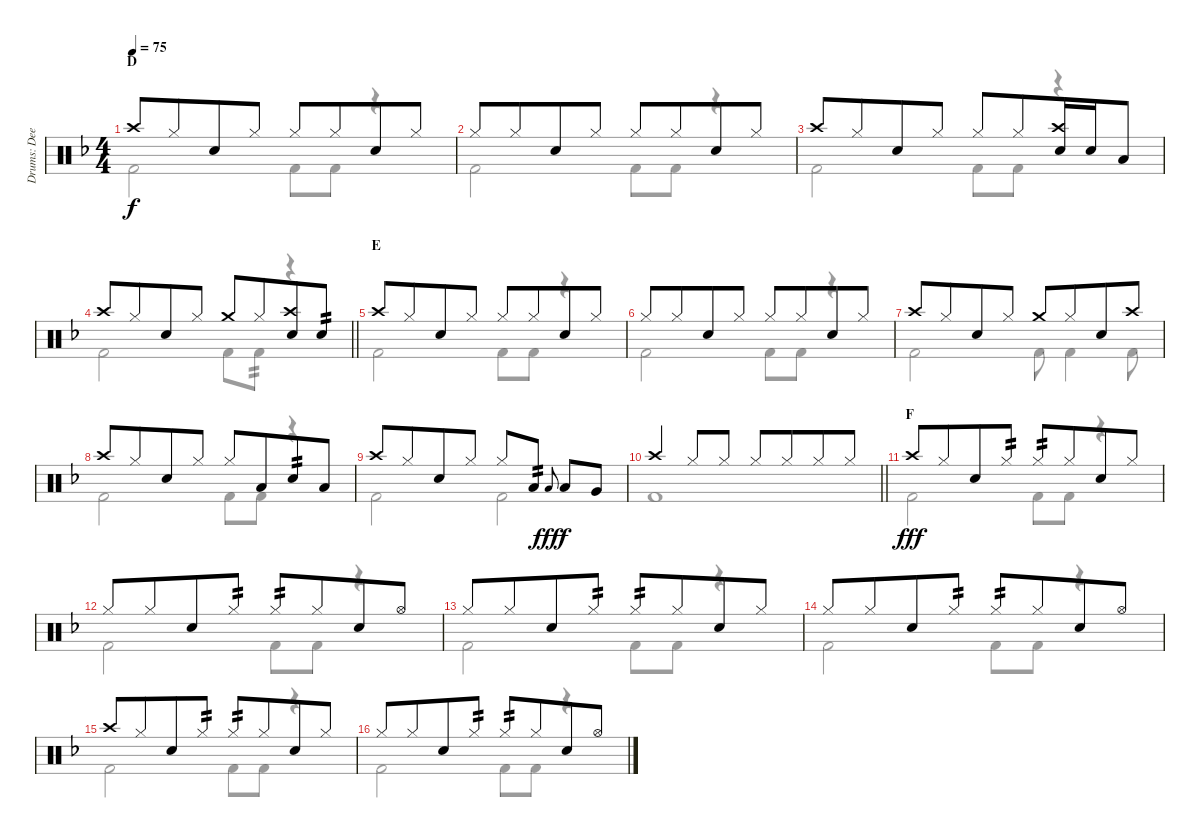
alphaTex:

\track ("Drums: Deen" "Drums: Dee") {instrument percussion}
\staff {score}
\articulation defaults
\voice
\ts (4 4)
\section ("" "D")
\tempo 75
\clef neutral
\ks f "Crash high (hit)".8{dy f} "Hi-Hat (closed)".8{beam merge} "Snare (hit) 2".8 "Hi-Hat (closed)".8 "Hi-Hat (closed)".8 "Hi-Hat (closed)".8{beam merge} "Snare (hit) 2".8 "Hi-Hat (closed)".8
|
"Hi-Hat (closed)".8 "Hi-Hat (closed)".8{beam merge} "Snare (hit) 2".8 "Hi-Hat (closed)".8 "Hi-Hat (closed)".8 "Hi-Hat (closed)".8{beam merge} "Snare (hit) 2".8 "Hi-Hat (closed)".8 |
"Crash high (hit)".8 "Hi-Hat (closed)".8{beam merge} "Snare (hit) 2".8 "Hi-Hat (closed)".8 "Hi-Hat (closed)".8 "Hi-Hat (closed)".8{beam merge} ("Crash high (hit)" "Snare (hit) 2").16 "Snare (hit) 2".16 "Low Tom (hit)".8 |
\barLineRight lightlight "Crash high (hit)".8 "Hi-Hat (closed)".8{beam merge} "Snare (hit) 2".8 "Hi-Hat (closed)".8 "Crash medium (hit)".8 "Hi-Hat (closed)".8{beam merge}
("Crash high (hit)" "Snare (hit) 2").8 "Snare (hit) 2".8{tp 2} |
\section ("" "E")
"Crash high (hit)".8 "Hi-Hat (closed)".8{beam merge} "Snare (hit) 2".8 "Hi-Hat (closed)".8 "Hi-Hat (closed)".8 "Hi-Hat (closed)".8{beam merge} "Snare (hit) 2".8 "Hi-Hat (closed)".8 |
"Hi-Hat (closed)".8 "Hi-Hat (closed)".8{beam merge} "Snare (hit) 2".8 "Hi-Hat (closed)".8 "Hi-Hat (closed)".8 "Hi-Hat (closed)".8{beam merge} "Snare (hit) 2".8 "Hi-Hat (closed)".8 |
"Crash high (hit)".8 "Hi-Hat (closed)".8{beam merge} "Snare (hit) 2".8 "Hi-Hat (closed)".8 "Crash medium (hit)".8 "Hi-Hat (closed)".8{beam merge} "Snare (hit) 2".8 "Crash high (hit)".8 |
"Crash high (hit)".8 "Hi-Hat (closed)".8{beam merge} "Snare (hit) 2".8 "Hi-Hat (closed)".8 "Hi-Hat (closed)".8 "Low Tom (hit)".8{beam merge} "Snare (hit) 2".8{tp 2} "Low Tom (hit)".8 |
"Crash high (hit)".8 "Hi-Hat (closed)".8{beam merge} "Snare (hit) 2".8 "Hi-Hat (closed)".8 "Hi-Hat (closed)".8 "Low Tom (hit)".8{tp 2} "Low Tom (hit)".8{gr onbeat dy fff beam merge} "Low Tom (hit)".8{dy f} "Very Low Tom (hit)".8 |
\barLineRight lightlight "Crash high (hit)".4 "Hi-Hat (closed)".8 "Hi-Hat (closed)".8 "Hi-Hat (closed)".8 "Hi-Hat (closed)".8{beam merge} "Hi-Hat (closed)".8 "Hi-Hat (closed)".8
|
\section ("" "F")
"Crash high (hit)".8{dy fff} "Hi-Hat (closed)".8{beam merge} "Snare (hit) 2".8 "Hi-Hat (closed)".8{tp 2} "Hi-Hat (closed)".8{tp 2} "Hi-Hat (closed)".8{beam merge} "Snare (hit) 2".8 "Hi-Hat (closed)".8 |
"Hi-Hat (closed)".8 "Hi-Hat (closed)".8{beam merge} "Snare (hit) 2".8 "Hi-Hat (closed)".8{tp 2} "Hi-Hat (closed)".8{tp 2} "Hi-Hat (closed)".8{beam merge} "Snare (hit) 2".8 "Hi-Hat (open)".8 |
"Hi-Hat (closed)".8 "Hi-Hat (closed)".8{beam merge} "Snare (hit) 2".8 "Hi-Hat (closed)".8{tp 2} "Hi-Hat (closed)".8{tp 2} "Hi-Hat (closed)".8{beam merge} "Snare (hit) 2".8 "Hi-Hat (closed)".8 |
"Hi-Hat (closed)".8 "Hi-Hat (closed)".8{beam merge} "Snare (hit) 2".8 "Hi-Hat (closed)".8{tp 2} "Hi-Hat (closed)".8{tp 2} "Hi-Hat (closed)".8{beam merge} "Snare (hit) 2".8 "Hi-Hat (open)".8 |
"Crash high (hit)".8 "Hi-Hat (closed)".8{beam merge} "Snare (hit) 2".8 "Hi-Hat (closed)".8{tp 2} "Hi-Hat (closed)".8{tp 2} "Hi-Hat (closed)".8{beam merge} "Snare (hit) 2".8 "Hi-Hat (closed)".8 |
"Hi-Hat (closed)".8 "Hi-Hat (closed)".8{beam merge} "Snare (hit) 2".8 "Hi-Hat (closed)".8{tp 2} "Hi-Hat (closed)".8{tp 2} "Hi-Hat (closed)".8{beam merge} "Snare (hit) 2".8 "Hi-Hat (open)".8
\voice
\clef neutral
\ottava regular
\simile none
\ks f "Kick (hit) 2".2{dy f} "Kick (hit) 2".8 "Kick (hit) 2".8
r.4 |
"Kick (hit) 2".2 "Kick (hit) 2".8 "Kick (hit) 2".8 r.4 |
"Kick (hit) 2".2 "Kick (hit) 2".8 "Kick (hit) 2".8 r.4 |
\barLineRight lightlight "Kick (hit) 2".2 "Kick (hit) 2".8 "Kick (hit) 2".8{tp 2}
r.4 |
"Kick (hit) 2".2 "Kick (hit) 2".8 "Kick (hit) 2".8 r.4 |
"Kick (hit) 2".2 "Kick (hit) 2".8 "Kick (hit) 2".8 r.4 |
"Kick (hit) 2".2 "Kick (hit) 2".8 "Kick (hit) 2".4 "Kick (hit) 2".8 |
"Kick (hit) 2".2 "Kick (hit) 2".8 "Kick (hit) 2".8 r.4 |
"Kick (hit) 2".2 "Kick (hit) 2".2 |
\barLineRight lightlight "Kick (hit) 2".1
|
"Kick (hit) 2".2{dy fff} "Kick (hit) 2".8 "Kick (hit) 2".8 r.4 |
"Kick (hit) 2".2 "Kick (hit) 2".8 "Kick (hit) 2".8 r.4 |
"Kick (hit) 2".2 "Kick (hit) 2".8 "Kick (hit) 2".8 r.4 |
"Kick (hit) 2".2 "Kick (hit) 2".8 "Kick (hit) 2".8 r.4 |
"Kick (hit) 2".2 "Kick (hit) 2".8 "Kick (hit) 2".8 r.4 |
"Kick (hit) 2".2 "Kick (hit) 2".8 "Kick (hit) 2".8 r.4
